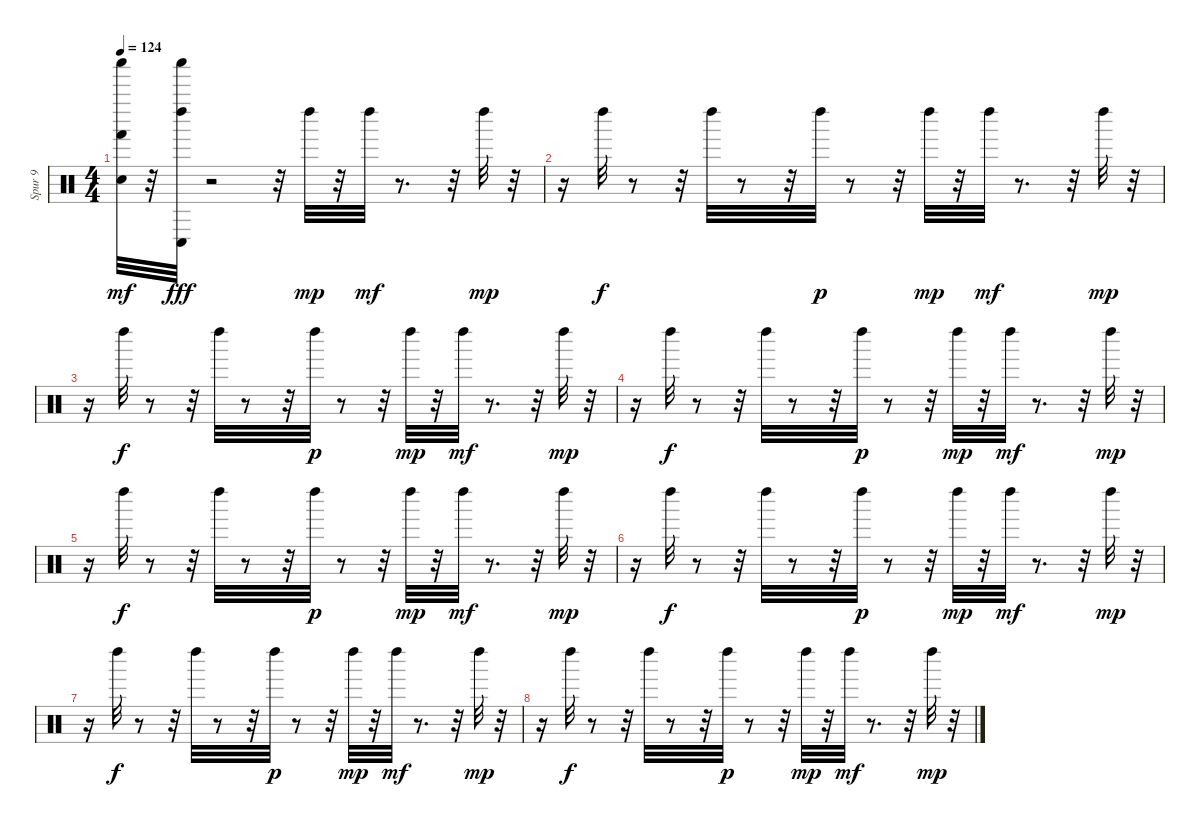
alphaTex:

\track ("Spur 9" "Spur 9") {instrument percussion}
\staff {score}
\articulation defaults
\ts (4 4)
\tempo 124
\clef neutral
\ks c
("Electric Snare (hit)" "Hand (hit)" "Shaker (hit)").32{dy mf} r.32 ("Conga low (hit)" "Left Maraca (hit)" "Shaker (hit)").32{dy fff} r.2 r.32 "Left Maraca (hit)".32{dy mp} r.32 "Left Maraca (hit)".32{dy mf} r.8{d} r.32 "Left Maraca (hit)".32{dy mp} r.32 |
r.16 "Left Maraca (hit)".32{dy f} r.8 r.32 "Left Maraca (hit)".32 r.8 r.32 "Left Maraca (hit)".32{dy p} r.8 r.32 "Left Maraca (hit)".32{dy mp} r.32 "Left Maraca (hit)".32{dy mf} r.8{d} r.32 "Left Maraca (hit)".32{dy mp} r.32 |
r.16 "Left Maraca (hit)".32{dy f} r.8 r.32 "Left Maraca (hit)".32 r.8 r.32 "Left Maraca (hit)".32{dy p} r.8 r.32 "Left Maraca (hit)".32{dy mp} r.32 "Left Maraca (hit)".32{dy mf} r.8{d} r.32 "Left Maraca (hit)".32{dy mp} r.32 |
r.16 "Left Maraca (hit)".32{dy f} r.8 r.32 "Left Maraca (hit)".32 r.8 r.32 "Left Maraca (hit)".32{dy p} r.8 r.32 "Left Maraca (hit)".32{dy mp} r.32 "Left Maraca (hit)".32{dy mf} r.8{d} r.32 "Left Maraca (hit)".32{dy mp} r.32 |
r.16 "Left Maraca (hit)".32{dy f} r.8 r.32 "Left Maraca (hit)".32 r.8 r.32 "Left Maraca (hit)".32{dy p} r.8 r.32 "Left Maraca (hit)".32{dy mp} r.32 "Left Maraca (hit)".32{dy mf} r.8{d} r.32 "Left Maraca (hit)".32{dy mp} r.32 |
r.16 "Left Maraca (hit)".32{dy f} r.8 r.32 "Left Maraca (hit)".32 r.8 r.32 "Left Maraca (hit)".32{dy p} r.8 r.32 "Left Maraca (hit)".32{dy mp} r.32 "Left Maraca (hit)".32{dy mf} r.8{d} r.32 "Left Maraca (hit)".32{dy mp} r.32 |
r.16 "Left Maraca (hit)".32{dy f} r.8 r.32 "Left Maraca (hit)".32 r.8 r.32 "Left Maraca (hit)".32{dy p} r.8 r.32 "Left Maraca (hit)".32{dy mp} r.32 "Left Maraca (hit)".32{dy mf} r.8{d} r.32 "Left Maraca (hit)".32{dy mp} r.32 |
r.16 "Left Maraca (hit)".32{dy f} r.8 r.32 "Left Maraca (hit)".32 r.8 r.32 "Left Maraca (hit)".32{dy p} r.8 r.32 "Left Maraca (hit)".32{dy mp} r.32 "Left Maraca (hit)".32{dy mf} r.8{d} r.32 "Left Maraca (hit)".32{dy mp} r.32
